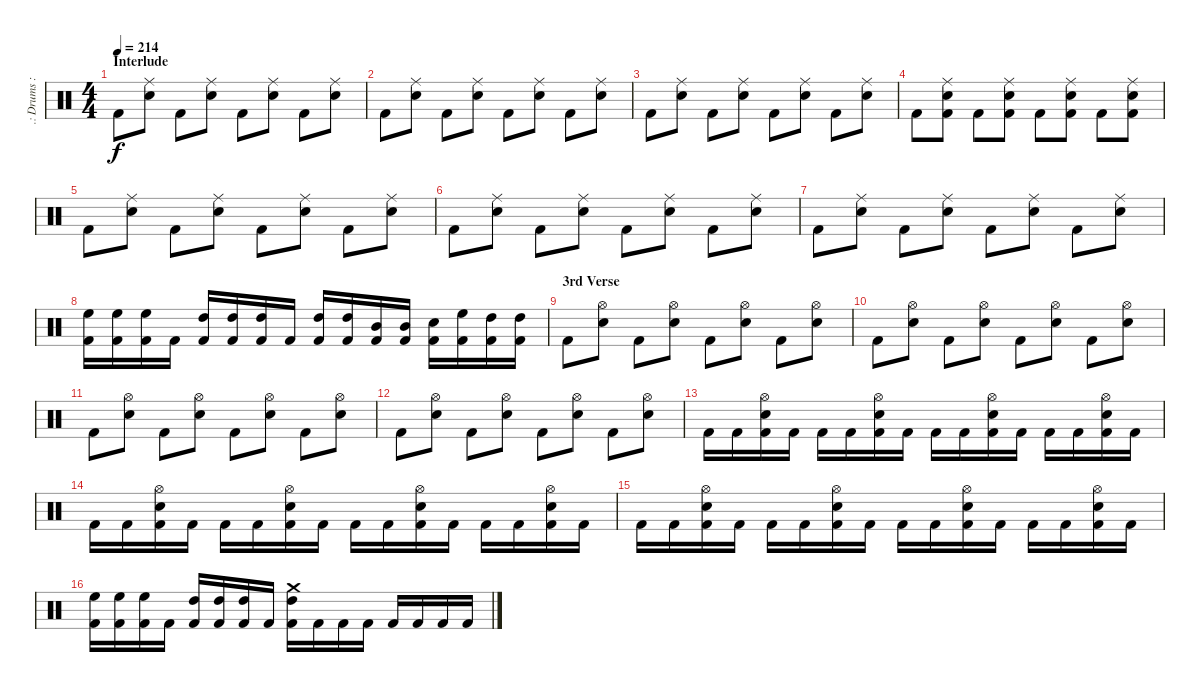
\track (".: Drums :." ".: Drums :") {instrument percussion}
\staff {score}
\articulation defaults
\ts (4 4)
\section ("" "Interlude")
\tempo 214
\clef neutral
\ks c "Kick (hit) 2".8{dy f}
("Snare (hit) 2" "Ride (middle)").8 "Kick (hit) 2".8 ("Snare (hit) 2" "Ride (middle)").8 "Kick (hit) 2".8 ("Snare (hit) 2" "Ride (middle)").8 "Kick (hit) 2".8 ("Snare (hit) 2" "Ride (middle)").8 |
"Kick (hit) 2".8 ("Snare (hit) 2" "Ride (middle)").8 "Kick (hit) 2".8 ("Snare (hit) 2" "Ride (middle)").8 "Kick (hit) 2".8 ("Snare (hit) 2" "Ride (middle)").8 "Kick (hit) 2".8 ("Snare (hit) 2" "Ride (middle)").8 |
"Kick (hit) 2".8 ("Snare (hit) 2" "Ride (middle)").8 "Kick (hit) 2".8 ("Snare (hit) 2" "Ride (middle)").8 "Kick (hit) 2".8 ("Snare (hit) 2" "Ride (middle)").8 "Kick (hit) 2".8 ("Snare (hit) 2" "Ride (middle)").8 |
"Kick (hit) 2".8 ("Kick (hit) 2" "Snare (hit) 2" "Ride (middle)").8 "Kick (hit) 2".8 ("Kick (hit) 2" "Snare (hit) 2" "Ride (middle)").8 "Kick (hit) 2".8 ("Kick (hit) 2" "Snare (hit) 2" "Ride (middle)").8 "Kick (hit) 2".8 ("Kick (hit) 2" "Snare (hit) 2" "Ride (middle)").8 |
"Kick (hit) 2".8 ("Snare (hit) 2" "Ride (middle)").8 "Kick (hit) 2".8 ("Snare (hit) 2" "Ride (middle)").8 "Kick (hit) 2".8 ("Snare (hit) 2" "Ride (middle)").8 "Kick (hit) 2".8 ("Snare (hit) 2" "Ride (middle)").8 |
"Kick (hit) 2".8 ("Snare (hit) 2" "Ride (middle)").8 "Kick (hit) 2".8 ("Snare (hit) 2" "Ride (middle)").8 "Kick (hit) 2".8 ("Snare (hit) 2" "Ride (middle)").8 "Kick (hit) 2".8 ("Snare (hit) 2" "Ride (middle)").8 |
"Kick (hit) 2".8 ("Snare (hit) 2" "Ride (middle)").8 "Kick (hit) 2".8 ("Snare (hit) 2" "Ride (middle)").8 "Kick (hit) 2".8 ("Snare (hit) 2" "Ride (middle)").8 "Kick (hit) 2".8 ("Snare (hit) 2" "Ride (middle)").8 |
("Kick (hit) 2" "High Floor Tom (hit)").16 ("Kick (hit) 2" "High Floor Tom (hit)").16 ("Kick (hit) 2" "High Floor Tom (hit)").16 "Kick (hit) 2".16 ("Kick (hit) 2" "High Tom (hit)").16 ("Kick (hit) 2" "High Tom (hit)").16 ("Kick (hit) 2" "High Tom (hit)").16 "Kick (hit) 2".16 ("Kick (hit) 2" "High Tom (hit)").16 ("Kick (hit) 2" "High Tom (hit)").16 ("Kick (hit) 2" "Mid Tom (hit)").16 ("Kick (hit) 2" "Mid Tom (hit)").16 ("Kick (hit) 2" "Snare (hit) 2").16 ("Kick (hit) 2" "High Floor Tom (hit)").16 ("Kick (hit) 2" "High Tom (hit)").16 ("Kick (hit) 2" "High Tom (hit)").16 |
\section ("" "3rd Verse")
"Kick (hit) 2".8 ("Snare (hit) 2" "Hi-Hat (open)").8 "Kick (hit) 2".8 ("Snare (hit) 2" "Hi-Hat (open)").8 "Kick (hit) 2".8 ("Snare (hit) 2" "Hi-Hat (open)").8 "Kick (hit) 2".8 ("Snare (hit) 2" "Hi-Hat (open)").8 |
"Kick (hit) 2".8 ("Snare (hit) 2" "Hi-Hat (open)").8 "Kick (hit) 2".8 ("Snare (hit) 2" "Hi-Hat (open)").8 "Kick (hit) 2".8 ("Snare (hit) 2" "Hi-Hat (open)").8 "Kick (hit) 2".8 ("Snare (hit) 2" "Hi-Hat (open)").8 |
"Kick (hit) 2".8 ("Snare (hit) 2" "Hi-Hat (open)").8 "Kick (hit) 2".8 ("Snare (hit) 2" "Hi-Hat (open)").8 "Kick (hit) 2".8 ("Snare (hit) 2" "Hi-Hat (open)").8 "Kick (hit) 2".8 ("Snare (hit) 2" "Hi-Hat (open)").8 |
"Kick (hit) 2".8 ("Snare (hit) 2" "Hi-Hat (open)").8 "Kick (hit) 2".8 ("Snare (hit) 2" "Hi-Hat (open)").8 "Kick (hit) 2".8 ("Snare (hit) 2" "Hi-Hat (open)").8 "Kick (hit) 2".8 ("Snare (hit) 2" "Hi-Hat (open)").8 |
"Kick (hit) 2".16 "Kick (hit) 2".16 ("Kick (hit) 2" "Snare (hit) 2" "Hi-Hat (open)").16 "Kick (hit) 2".16 "Kick (hit) 2".16 "Kick (hit) 2".16 ("Kick (hit) 2" "Snare (hit) 2" "Hi-Hat (open)").16 "Kick (hit) 2".16 "Kick (hit) 2".16 "Kick (hit) 2".16 ("Kick (hit) 2" "Snare (hit) 2" "Hi-Hat (open)").16 "Kick (hit) 2".16 "Kick (hit) 2".16 "Kick (hit) 2".16 ("Kick (hit) 2" "Snare (hit) 2" "Hi-Hat (open)").16 "Kick (hit) 2".16 |
"Kick (hit) 2".16 "Kick (hit) 2".16 ("Kick (hit) 2" "Snare (hit) 2" "Hi-Hat (open)").16 "Kick (hit) 2".16 "Kick (hit) 2".16 "Kick (hit) 2".16 ("Kick (hit) 2" "Snare (hit) 2" "Hi-Hat (open)").16 "Kick (hit) 2".16 "Kick (hit) 2".16 "Kick (hit) 2".16 ("Kick (hit) 2" "Snare (hit) 2" "Hi-Hat (open)").16 "Kick (hit) 2".16 "Kick (hit) 2".16 "Kick (hit) 2".16 ("Kick (hit) 2" "Snare (hit) 2" "Hi-Hat (open)").16 "Kick (hit) 2".16 |
"Kick (hit) 2".16 "Kick (hit) 2".16 ("Kick (hit) 2" "Snare (hit) 2" "Hi-Hat (open)").16 "Kick (hit) 2".16 "Kick (hit) 2".16 "Kick (hit) 2".16 ("Kick (hit) 2" "Snare (hit) 2" "Hi-Hat (open)").16 "Kick (hit) 2".16 "Kick (hit) 2".16 "Kick (hit) 2".16 ("Kick (hit) 2" "Snare (hit) 2" "Hi-Hat (open)").16 "Kick (hit) 2".16 "Kick (hit) 2".16 "Kick (hit) 2".16 ("Kick (hit) 2" "Snare (hit) 2" "Hi-Hat (open)").16 "Kick (hit) 2".16 |
("Kick (hit) 2" "High Floor Tom (hit)").16 ("Kick (hit) 2" "High Floor Tom (hit)").16 ("Kick (hit) 2" "High Floor Tom (hit)").16 "Kick (hit) 2".16 ("Kick (hit) 2" "High Tom (hit)").16 ("Kick (hit) 2" "High Tom (hit)").16 ("Kick (hit) 2" "High Tom (hit)").16 "Kick (hit) 2".16 ("Kick (hit) 2" "High Tom (hit)" "Crash medium (hit)").16 "Kick (hit) 2".16 "Kick (hit) 2".16 "Kick (hit) 2".16 "Kick (hit) 2".16 "Kick (hit) 2".16 "Kick (hit) 2".16 "Kick (hit) 2".16
